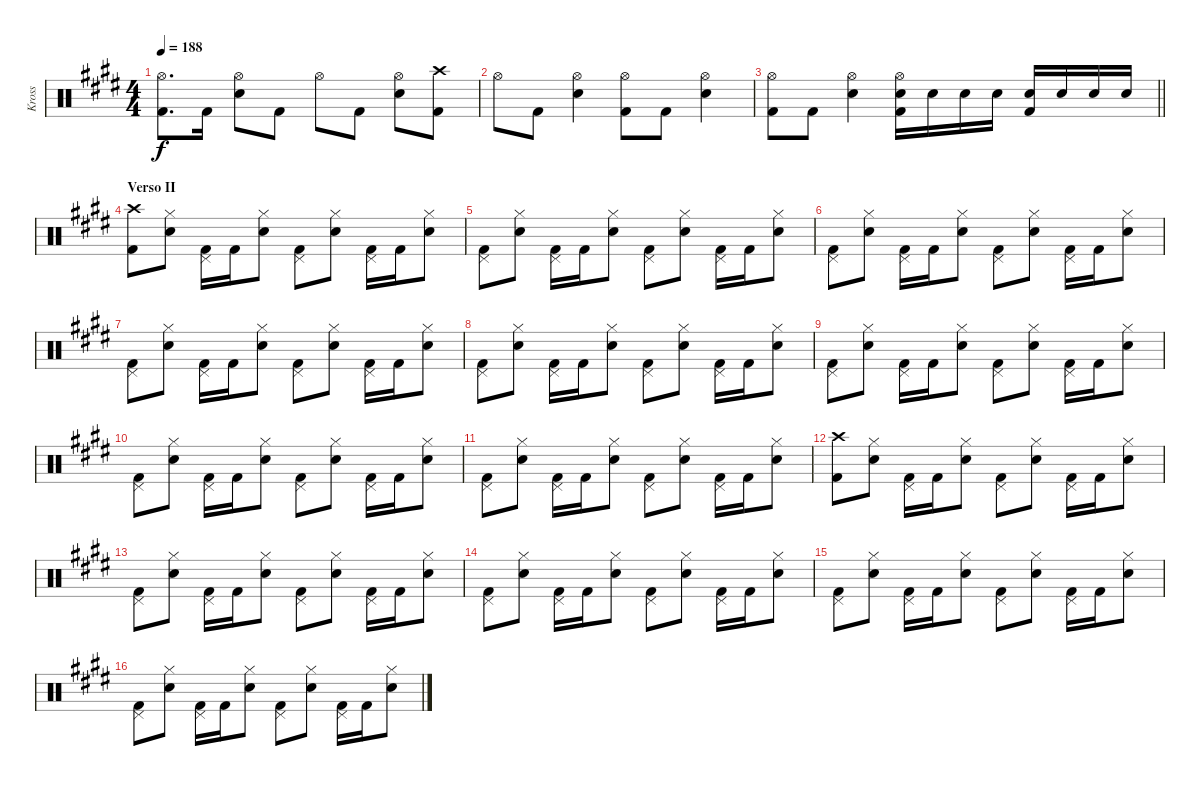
\track ("Kross" "Kross") {instrument percussion}
\staff {score}
\articulation defaults
\ts (4 4)
\tempo 188
\clef neutral
\ks e
("Hi-Hat (open)" "Kick (hit) 2").8{d dy f} "Kick (hit) 2".16 ("Hi-Hat (open)" "Electric Snare (hit)").8 "Kick (hit) 2".8 "Hi-Hat (open)".8 "Kick (hit) 2".8 ("Hi-Hat (open)" "Electric Snare (hit)").8 ("Crash high (hit)" "Kick (hit) 2").8 |
"Hi-Hat (open)".8 "Kick (hit) 2".8 ("Hi-Hat (open)" "Electric Snare (hit)").4 ("Hi-Hat (open)" "Kick (hit) 2").8 "Kick (hit) 2".8 ("Hi-Hat (open)" "Electric Snare (hit)").4 |
\barLineRight lightlight
("Hi-Hat (open)" "Kick (hit) 2").8 "Kick (hit) 2".8 ("Hi-Hat (open)" "Electric Snare (hit)").4 ("Hi-Hat (open)" "Electric Snare (hit)" "Kick (hit) 2").16 "Electric Snare (hit)".16 "Electric Snare (hit)".16 "Electric Snare (hit)".16 ("Electric Snare (hit)" "Kick (hit) 2").16 "Electric Snare (hit)".16 "Electric Snare (hit)".16 "Electric Snare (hit)".16 |
\section ("" "Verso II")
("Crash high (hit)" "Kick (hit) 2").8 ("Hi-Hat (closed)" "Electric Snare (hit)").8 ("Pedal Hi-Hat (hit)" "Kick (hit) 2").16 "Kick (hit) 2".16 ("Hi-Hat (closed)" "Electric Snare (hit)").8 ("Pedal Hi-Hat (hit)" "Kick (hit) 2").8 ("Hi-Hat (closed)" "Electric Snare (hit)").8 ("Pedal Hi-Hat (hit)" "Kick (hit) 2").16 "Kick (hit) 2".16 ("Hi-Hat (closed)" "Electric Snare (hit)").8 |
("Pedal Hi-Hat (hit)" "Kick (hit) 2").8 ("Hi-Hat (closed)" "Electric Snare (hit)").8 ("Pedal Hi-Hat (hit)" "Kick (hit) 2").16 "Kick (hit) 2".16 ("Hi-Hat (closed)" "Electric Snare (hit)").8 ("Pedal Hi-Hat (hit)" "Kick (hit) 2").8 ("Hi-Hat (closed)" "Electric Snare (hit)").8 ("Pedal Hi-Hat (hit)" "Kick (hit) 2").16 "Kick (hit) 2".16 ("Hi-Hat (closed)" "Electric Snare (hit)").8 |
("Pedal Hi-Hat (hit)" "Kick (hit) 2").8 ("Hi-Hat (closed)" "Electric Snare (hit)").8 ("Pedal Hi-Hat (hit)" "Kick (hit) 2").16 "Kick (hit) 2".16 ("Hi-Hat (closed)" "Electric Snare (hit)").8 ("Pedal Hi-Hat (hit)" "Kick (hit) 2").8 ("Hi-Hat (closed)" "Electric Snare (hit)").8 ("Pedal Hi-Hat (hit)" "Kick (hit) 2").16 "Kick (hit) 2".16 ("Hi-Hat (closed)" "Electric Snare (hit)").8 |
("Pedal Hi-Hat (hit)" "Kick (hit) 2").8 ("Hi-Hat (closed)" "Electric Snare (hit)").8 ("Pedal Hi-Hat (hit)" "Kick (hit) 2").16 "Kick (hit) 2".16 ("Hi-Hat (closed)" "Electric Snare (hit)").8 ("Pedal Hi-Hat (hit)" "Kick (hit) 2").8 ("Hi-Hat (closed)" "Electric Snare (hit)").8 ("Pedal Hi-Hat (hit)" "Kick (hit) 2").16 "Kick (hit) 2".16 ("Hi-Hat (closed)" "Electric Snare (hit)").8 |
("Pedal Hi-Hat (hit)" "Kick (hit) 2").8 ("Hi-Hat (closed)" "Electric Snare (hit)").8 ("Pedal Hi-Hat (hit)" "Kick (hit) 2").16 "Kick (hit) 2".16 ("Hi-Hat (closed)" "Electric Snare (hit)").8 ("Pedal Hi-Hat (hit)" "Kick (hit) 2").8 ("Hi-Hat (closed)" "Electric Snare (hit)").8 ("Pedal Hi-Hat (hit)" "Kick (hit) 2").16 "Kick (hit) 2".16 ("Hi-Hat (closed)" "Electric Snare (hit)").8 |
("Pedal Hi-Hat (hit)" "Kick (hit) 2").8 ("Hi-Hat (closed)" "Electric Snare (hit)").8 ("Pedal Hi-Hat (hit)" "Kick (hit) 2").16 "Kick (hit) 2".16 ("Hi-Hat (closed)" "Electric Snare (hit)").8 ("Pedal Hi-Hat (hit)" "Kick (hit) 2").8 ("Hi-Hat (closed)" "Electric Snare (hit)").8 ("Pedal Hi-Hat (hit)" "Kick (hit) 2").16 "Kick (hit) 2".16 ("Hi-Hat (closed)" "Electric Snare (hit)").8 |
("Pedal Hi-Hat (hit)" "Kick (hit) 2").8 ("Hi-Hat (closed)" "Electric Snare (hit)").8 ("Pedal Hi-Hat (hit)" "Kick (hit) 2").16 "Kick (hit) 2".16 ("Hi-Hat (closed)" "Electric Snare (hit)").8 ("Pedal Hi-Hat (hit)" "Kick (hit) 2").8 ("Hi-Hat (closed)" "Electric Snare (hit)").8 ("Pedal Hi-Hat (hit)" "Kick (hit) 2").16 "Kick (hit) 2".16 ("Hi-Hat (closed)" "Electric Snare (hit)").8 |
("Pedal Hi-Hat (hit)" "Kick (hit) 2").8 ("Hi-Hat (closed)" "Electric Snare (hit)").8 ("Pedal Hi-Hat (hit)" "Kick (hit) 2").16 "Kick (hit) 2".16 ("Hi-Hat (closed)" "Electric Snare (hit)").8 ("Pedal Hi-Hat (hit)" "Kick (hit) 2").8 ("Hi-Hat (closed)" "Electric Snare (hit)").8 ("Pedal Hi-Hat (hit)" "Kick (hit) 2").16 "Kick (hit) 2".16 ("Hi-Hat (closed)" "Electric Snare (hit)").8 |
("Crash high (hit)" "Kick (hit) 2").8 ("Hi-Hat (closed)" "Electric Snare (hit)").8 ("Pedal Hi-Hat (hit)" "Kick (hit) 2").16 "Kick (hit) 2".16 ("Hi-Hat (closed)" "Electric Snare (hit)").8 ("Pedal Hi-Hat (hit)" "Kick (hit) 2").8 ("Hi-Hat (closed)" "Electric Snare (hit)").8 ("Pedal Hi-Hat (hit)" "Kick (hit) 2").16 "Kick (hit) 2".16 ("Hi-Hat (closed)" "Electric Snare (hit)").8 |
("Pedal Hi-Hat (hit)" "Kick (hit) 2").8 ("Hi-Hat (closed)" "Electric Snare (hit)").8 ("Pedal Hi-Hat (hit)" "Kick (hit) 2").16 "Kick (hit) 2".16 ("Hi-Hat (closed)" "Electric Snare (hit)").8 ("Pedal Hi-Hat (hit)" "Kick (hit) 2").8 ("Hi-Hat (closed)" "Electric Snare (hit)").8 ("Pedal Hi-Hat (hit)" "Kick (hit) 2").16 "Kick (hit) 2".16 ("Hi-Hat (closed)" "Electric Snare (hit)").8 |
("Pedal Hi-Hat (hit)" "Kick (hit) 2").8 ("Hi-Hat (closed)" "Electric Snare (hit)").8 ("Pedal Hi-Hat (hit)" "Kick (hit) 2").16 "Kick (hit) 2".16 ("Hi-Hat (closed)" "Electric Snare (hit)").8 ("Pedal Hi-Hat (hit)" "Kick (hit) 2").8 ("Hi-Hat (closed)" "Electric Snare (hit)").8 ("Pedal Hi-Hat (hit)" "Kick (hit) 2").16 "Kick (hit) 2".16 ("Hi-Hat (closed)" "Electric Snare (hit)").8 |
("Pedal Hi-Hat (hit)" "Kick (hit) 2").8 ("Hi-Hat (closed)" "Electric Snare (hit)").8 ("Pedal Hi-Hat (hit)" "Kick (hit) 2").16 "Kick (hit) 2".16 ("Hi-Hat (closed)" "Electric Snare (hit)").8 ("Pedal Hi-Hat (hit)" "Kick (hit) 2").8 ("Hi-Hat (closed)" "Electric Snare (hit)").8 ("Pedal Hi-Hat (hit)" "Kick (hit) 2").16 "Kick (hit) 2".16 ("Hi-Hat (closed)" "Electric Snare (hit)").8 |
("Pedal Hi-Hat (hit)" "Kick (hit) 2").8 ("Hi-Hat (closed)" "Electric Snare (hit)").8 ("Pedal Hi-Hat (hit)" "Kick (hit) 2").16 "Kick (hit) 2".16 ("Hi-Hat (closed)" "Electric Snare (hit)").8 ("Pedal Hi-Hat (hit)" "Kick (hit) 2").8 ("Hi-Hat (closed)" "Electric Snare (hit)").8 ("Pedal Hi-Hat (hit)" "Kick (hit) 2").16 "Kick (hit) 2".16 ("Hi-Hat (closed)" "Electric Snare (hit)").8
